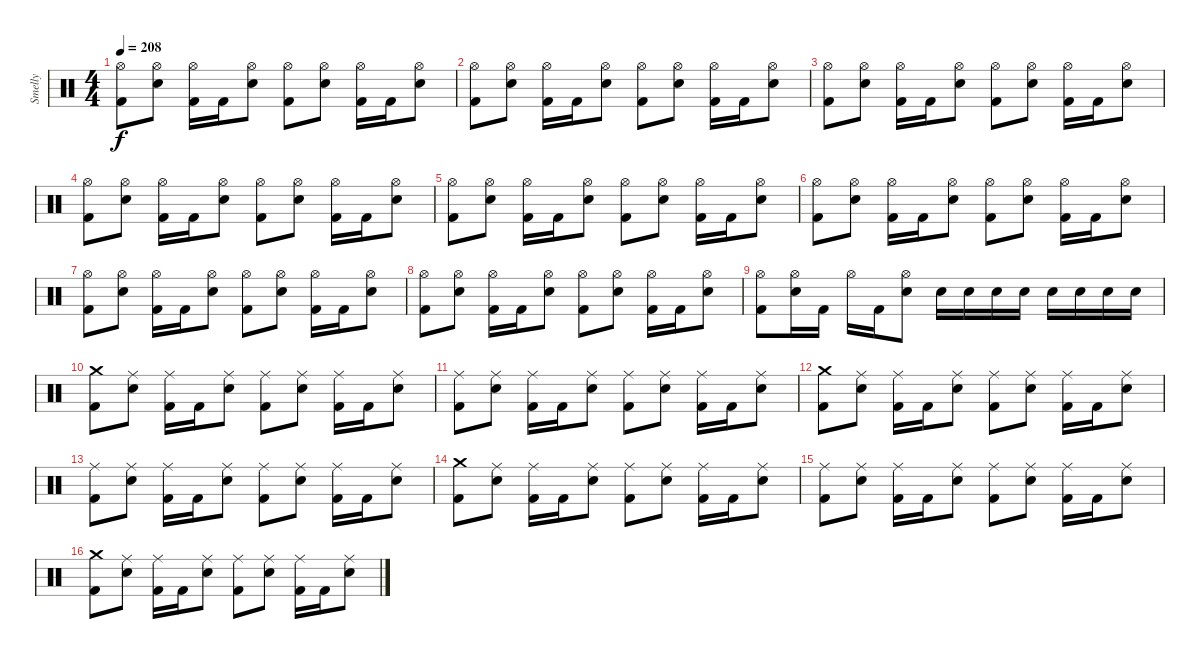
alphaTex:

\track ("Smelly" "Smelly") {instrument percussion}
\staff {score}
\articulation defaults
\ts (4 4)
\tempo 208
\clef neutral
\ks c
("Kick (hit) 2" "Hi-Hat (open)").8{dy f} ("Hi-Hat (open)" "Electric Snare (hit)").8 ("Kick (hit) 2" "Hi-Hat (open)").16 "Kick (hit) 2".16 ("Hi-Hat (open)" "Electric Snare (hit)").8 ("Kick (hit) 2" "Hi-Hat (open)").8 ("Hi-Hat (open)" "Electric Snare (hit)").8 ("Kick (hit) 2" "Hi-Hat (open)").16 "Kick (hit) 2".16 ("Hi-Hat (open)" "Electric Snare (hit)").8 |
("Kick (hit) 2" "Hi-Hat (open)").8 ("Hi-Hat (open)" "Electric Snare (hit)").8 ("Kick (hit) 2" "Hi-Hat (open)").16 "Kick (hit) 2".16 ("Hi-Hat (open)" "Electric Snare (hit)").8 ("Kick (hit) 2" "Hi-Hat (open)").8 ("Hi-Hat (open)" "Electric Snare (hit)").8 ("Kick (hit) 2" "Hi-Hat (open)").16 "Kick (hit) 2".16 ("Hi-Hat (open)" "Electric Snare (hit)").8 |
("Kick (hit) 2" "Hi-Hat (open)").8 ("Hi-Hat (open)" "Electric Snare (hit)").8 ("Kick (hit) 2" "Hi-Hat (open)").16 "Kick (hit) 2".16 ("Hi-Hat (open)" "Electric Snare (hit)").8 ("Kick (hit) 2" "Hi-Hat (open)").8 ("Hi-Hat (open)" "Electric Snare (hit)").8 ("Kick (hit) 2" "Hi-Hat (open)").16 "Kick (hit) 2".16 ("Hi-Hat (open)" "Electric Snare (hit)").8 |
("Kick (hit) 2" "Hi-Hat (open)").8 ("Hi-Hat (open)" "Electric Snare (hit)").8 ("Kick (hit) 2" "Hi-Hat (open)").16 "Kick (hit) 2".16 ("Hi-Hat (open)" "Electric Snare (hit)").8 ("Kick (hit) 2" "Hi-Hat (open)").8 ("Hi-Hat (open)" "Electric Snare (hit)").8 ("Kick (hit) 2" "Hi-Hat (open)").16 "Kick (hit) 2".16 ("Hi-Hat (open)" "Electric Snare (hit)").8 |
("Kick (hit) 2" "Hi-Hat (open)").8 ("Hi-Hat (open)" "Electric Snare (hit)").8 ("Kick (hit) 2" "Hi-Hat (open)").16 "Kick (hit) 2".16 ("Hi-Hat (open)" "Electric Snare (hit)").8 ("Kick (hit) 2" "Hi-Hat (open)").8 ("Hi-Hat (open)" "Electric Snare (hit)").8 ("Kick (hit) 2" "Hi-Hat (open)").16 "Kick (hit) 2".16 ("Hi-Hat (open)" "Electric Snare (hit)").8 |
("Kick (hit) 2" "Hi-Hat (open)").8 ("Hi-Hat (open)" "Electric Snare (hit)").8 ("Kick (hit) 2" "Hi-Hat (open)").16 "Kick (hit) 2".16 ("Hi-Hat (open)" "Electric Snare (hit)").8 ("Kick (hit) 2" "Hi-Hat (open)").8 ("Hi-Hat (open)" "Electric Snare (hit)").8 ("Kick (hit) 2" "Hi-Hat (open)").16 "Kick (hit) 2".16 ("Hi-Hat (open)" "Electric Snare (hit)").8 |
("Kick (hit) 2" "Hi-Hat (open)").8 ("Hi-Hat (open)" "Electric Snare (hit)").8 ("Kick (hit) 2" "Hi-Hat (open)").16 "Kick (hit) 2".16 ("Hi-Hat (open)" "Electric Snare (hit)").8 ("Kick (hit) 2" "Hi-Hat (open)").8 ("Hi-Hat (open)" "Electric Snare (hit)").8 ("Kick (hit) 2" "Hi-Hat (open)").16 "Kick (hit) 2".16 ("Hi-Hat (open)" "Electric Snare (hit)").8 |
("Kick (hit) 2" "Hi-Hat (open)").8 ("Hi-Hat (open)" "Electric Snare (hit)").8 ("Kick (hit) 2" "Hi-Hat (open)").16 "Kick (hit) 2".16 ("Hi-Hat (open)" "Electric Snare (hit)").8 ("Kick (hit) 2" "Hi-Hat (open)").8 ("Hi-Hat (open)" "Electric Snare (hit)").8 ("Kick (hit) 2" "Hi-Hat (open)").16 "Kick (hit) 2".16 ("Hi-Hat (open)" "Electric Snare (hit)").8 |
("Hi-Hat (open)" "Kick (hit) 2").8 ("Hi-Hat (open)" "Electric Snare (hit)").16 "Kick (hit) 2".16 "Hi-Hat (open)".16 "Kick (hit) 2".16 ("Hi-Hat (open)" "Electric Snare (hit)").8 "Electric Snare (hit)".16 "Electric Snare (hit)".16 "Electric Snare (hit)".16 "Electric Snare (hit)".16 "Electric Snare (hit)".16 "Electric Snare (hit)".16 "Electric Snare (hit)".16 "Electric Snare (hit)".16 |
("Crash medium (hit)" "Kick (hit) 2").8 ("Ride (middle)" "Electric Snare (hit)").8 ("Kick (hit) 2" "Ride (middle)").16 "Kick (hit) 2".16 ("Ride (middle)" "Electric Snare (hit)").8 ("Kick (hit) 2" "Ride (middle)").8 ("Ride (middle)" "Electric Snare (hit)").8 ("Kick (hit) 2" "Ride (middle)").16 "Kick (hit) 2".16 ("Ride (middle)" "Electric Snare (hit)").8 |
("Kick (hit) 2" "Ride (middle)").8 ("Ride (middle)" "Electric Snare (hit)").8 ("Kick (hit) 2" "Ride (middle)").16 "Kick (hit) 2".16 ("Ride (middle)" "Electric Snare (hit)").8 ("Kick (hit) 2" "Ride (middle)").8 ("Ride (middle)" "Electric Snare (hit)").8 ("Kick (hit) 2" "Ride (middle)").16 "Kick (hit) 2".16 ("Ride (middle)" "Electric Snare (hit)").8 |
("Crash medium (hit)" "Kick (hit) 2").8 ("Ride (middle)" "Electric Snare (hit)").8 ("Kick (hit) 2" "Ride (middle)").16 "Kick (hit) 2".16 ("Ride (middle)" "Electric Snare (hit)").8 ("Kick (hit) 2" "Ride (middle)").8 ("Ride (middle)" "Electric Snare (hit)").8 ("Kick (hit) 2" "Ride (middle)").16 "Kick (hit) 2".16 ("Ride (middle)" "Electric Snare (hit)").8 |
("Kick (hit) 2" "Ride (middle)").8 ("Ride (middle)" "Electric Snare (hit)").8 ("Kick (hit) 2" "Ride (middle)").16 "Kick (hit) 2".16 ("Ride (middle)" "Electric Snare (hit)").8 ("Kick (hit) 2" "Ride (middle)").8 ("Ride (middle)" "Electric Snare (hit)").8 ("Kick (hit) 2" "Ride (middle)").16 "Kick (hit) 2".16 ("Ride (middle)" "Electric Snare (hit)").8 |
("Crash medium (hit)" "Kick (hit) 2").8 ("Ride (middle)" "Electric Snare (hit)").8 ("Kick (hit) 2" "Ride (middle)").16 "Kick (hit) 2".16 ("Ride (middle)" "Electric Snare (hit)").8 ("Kick (hit) 2" "Ride (middle)").8 ("Ride (middle)" "Electric Snare (hit)").8 ("Kick (hit) 2" "Ride (middle)").16 "Kick (hit) 2".16 ("Ride (middle)" "Electric Snare (hit)").8 |
("Kick (hit) 2" "Ride (middle)").8 ("Ride (middle)" "Electric Snare (hit)").8 ("Kick (hit) 2" "Ride (middle)").16 "Kick (hit) 2".16 ("Ride (middle)" "Electric Snare (hit)").8 ("Kick (hit) 2" "Ride (middle)").8 ("Ride (middle)" "Electric Snare (hit)").8 ("Kick (hit) 2" "Ride (middle)").16 "Kick (hit) 2".16 ("Ride (middle)" "Electric Snare (hit)").8 |
("Crash medium (hit)" "Kick (hit) 2").8 ("Ride (middle)" "Electric Snare (hit)").8 ("Kick (hit) 2" "Ride (middle)").16 "Kick (hit) 2".16 ("Ride (middle)" "Electric Snare (hit)").8 ("Kick (hit) 2" "Ride (middle)").8 ("Ride (middle)" "Electric Snare (hit)").8 ("Kick (hit) 2" "Ride (middle)").16 "Kick (hit) 2".16 ("Ride (middle)" "Electric Snare (hit)").8
